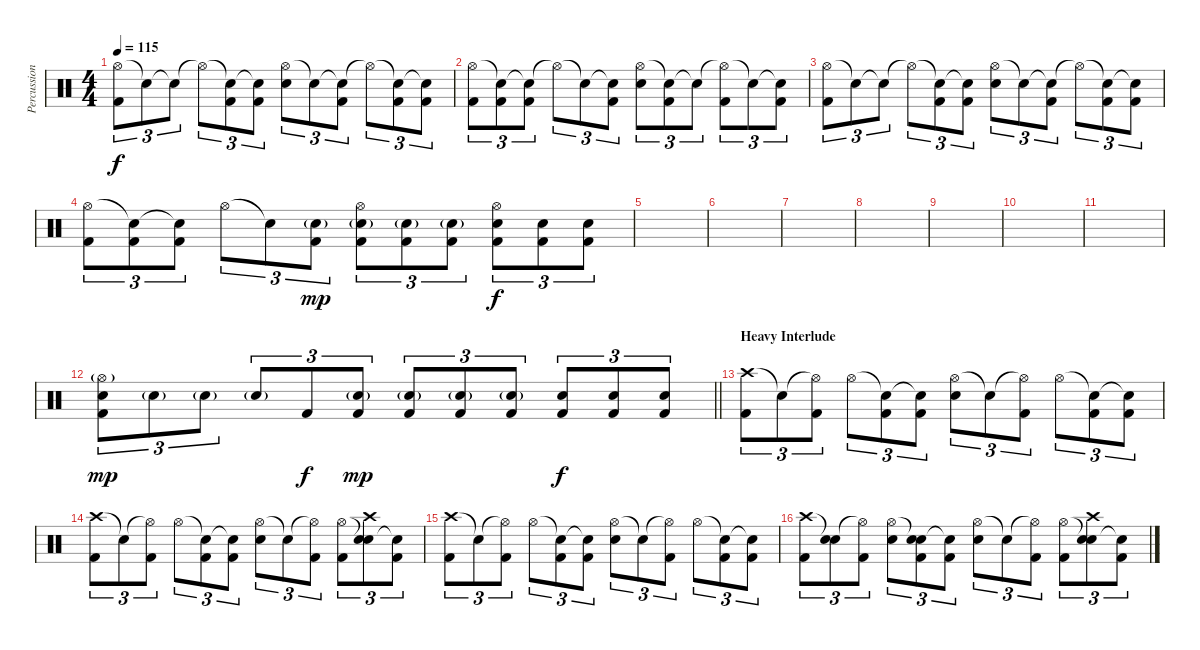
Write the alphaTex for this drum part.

\track ("Percussion" "Percussion") {instrument percussion}
\staff {score}
\articulation defaults
\ts (4 4)
\tempo 115
\clef neutral
\ks c
("Hi-Hat (open)" "Kick (hit) 2").8{tu (3 2) dy f} "Snare (hit)"{t}.8{tu (3 2)} "Snare (hit)"{t}.8{tu (3 2)} "Hi-Hat (open)"{t}.8{tu (3 2)} ("Snare (hit)"{t} "Kick (hit) 2").8{tu (3 2)} ("Snare (hit)"{t} "Kick (hit) 2").8{tu (3 2)} ("Hi-Hat (open)" "Electric Snare (hit)").8{tu (3 2)} "Snare (hit)"{t}.8{tu (3 2)} ("Snare (hit)"{t} "Kick (hit) 2").8{tu (3 2)} "Hi-Hat (open)"{t}.8{tu (3 2)} ("Snare (hit)"{t} "Kick (hit) 2").8{tu (3 2)} ("Snare (hit)"{t} "Kick (hit) 2").8{tu (3 2)} |
("Hi-Hat (open)" "Kick (hit) 2").8{tu (3 2)} ("Snare (hit)"{t} "Kick (hit) 2").8{tu (3 2)} ("Snare (hit)"{t} "Kick (hit) 2").8{tu (3 2)} "Hi-Hat (open)"{t}.8{tu (3 2)} "Snare (hit)"{t}.8{tu (3 2)} ("Snare (hit)"{t} "Kick (hit) 2").8{tu (3 2)} ("Hi-Hat (open)" "Electric Snare (hit)").8{tu (3 2)} ("Snare (hit)"{t} "Kick (hit) 2").8{tu (3 2)} "Snare (hit)"{t}.8{tu (3 2)} ("Hi-Hat (open)"{t} "Kick (hit) 2").8{tu (3 2)} "Snare (hit)"{t}.8{tu (3 2)} ("Snare (hit)"{t} "Kick (hit) 2").8{tu (3 2)} |
("Hi-Hat (open)" "Kick (hit) 2").8{tu (3 2)} "Snare (hit)"{t}.8{tu (3 2)} "Snare (hit)"{t}.8{tu (3 2)} "Hi-Hat (open)"{t}.8{tu (3 2)} ("Snare (hit)"{t} "Kick (hit) 2").8{tu (3 2)} ("Snare (hit)"{t} "Kick (hit) 2").8{tu (3 2)} ("Hi-Hat (open)" "Electric Snare (hit)").8{tu (3 2)} "Snare (hit)"{t}.8{tu (3 2)} ("Snare (hit)"{t} "Kick (hit) 2").8{tu (3 2)} "Hi-Hat (open)"{t}.8{tu (3 2)} ("Snare (hit)"{t} "Kick (hit) 2").8{tu (3 2)} ("Snare (hit)"{t} "Kick (hit) 2").8{tu (3 2)} |
("Hi-Hat (open)" "Kick (hit) 2").8{tu (3 2)} ("Snare (hit)"{t} "Kick (hit) 2").8{tu (3 2)} ("Snare (hit)"{t} "Kick (hit) 2").8{tu (3 2)} "Hi-Hat (open)".8{tu (3 2)} "Snare (hit)"{t}.8{tu (3 2)} ("Electric Snare (hit)"{g} "Kick (hit) 2").8{tu (3 2) dy mp} ("Hi-Hat (open)" "Electric Snare (hit)"{g} "Kick (hit) 2").8{tu (3 2)} ("Electric Snare (hit)"{g} "Kick (hit) 2").8{tu (3 2)} ("Electric Snare (hit)"{g} "Kick (hit) 2").8{tu (3 2)} ("Hi-Hat (open)" "Electric Snare (hit)" "Kick (hit) 2").8{tu (3 2) dy f} ("Electric Snare (hit)" "Kick (hit) 2").8{tu (3 2)} ("Electric Snare (hit)" "Kick (hit) 2").8{tu (3 2)} |
|
|
|
|
|
|
|
\barLineRight lightlight
("Hi-Hat (open)"{g} "Electric Snare (hit)" "Kick (hit) 2").8{tu (3 2) dy mp} "Electric Snare (hit)"{g}.8{tu (3 2)} "Electric Snare (hit)"{g}.8{tu (3 2)} "Electric Snare (hit)"{g}.8{tu (3 2)} "Kick (hit) 2".8{tu (3 2) dy f} ("Electric Snare (hit)"{g} "Kick (hit) 2").8{tu (3 2) dy mp} ("Electric Snare (hit)"{g} "Kick (hit) 2").8{tu (3 2)} ("Electric Snare (hit)"{g} "Kick (hit) 2").8{tu (3 2)} ("Electric Snare (hit)"{g} "Kick (hit) 2").8{tu (3 2)} ("Electric Snare (hit)" "Kick (hit) 2").8{tu (3 2) dy f} ("Electric Snare (hit)" "Kick (hit) 2").8{tu (3 2)} ("Electric Snare (hit)" "Kick (hit) 2").8{tu (3 2)} |
\section ("" "Heavy Interlude")
("Crash high (hit)" "Kick (hit) 2").8{tu (3 2)} "Snare (hit)"{t}.8{tu (3 2)} ("Hi-Hat (open)"{t} "Kick (hit) 2").8{tu (3 2)} "Hi-Hat (open)".8{tu (3 2)} ("Snare (hit)"{t} "Kick (hit) 2").8{tu (3 2)} ("Snare (hit)"{t} "Kick (hit) 2").8{tu (3 2)} ("Hi-Hat (open)" "Electric Snare (hit)").8{tu (3 2)} "Snare (hit)"{t}.8{tu (3 2)} ("Hi-Hat (open)"{t} "Kick (hit) 2").8{tu (3 2)} "Hi-Hat (open)".8{tu (3 2)} ("Snare (hit)"{t} "Kick (hit) 2").8{tu (3 2)} ("Snare (hit)"{t} "Kick (hit) 2").8{tu (3 2)} |
("Crash high (hit)" "Kick (hit) 2").8{tu (3 2)} "Snare (hit)"{t}.8{tu (3 2)} ("Hi-Hat (open)"{t} "Kick (hit) 2").8{tu (3 2)} "Hi-Hat (open)".8{tu (3 2)} ("Snare (hit)"{t} "Kick (hit) 2").8{tu (3 2)} ("Snare (hit)"{t} "Kick (hit) 2").8{tu (3 2)} ("Hi-Hat (open)" "Electric Snare (hit)").8{tu (3 2)} "Snare (hit)"{t}.8{tu (3 2)} ("Hi-Hat (open)"{t} "Kick (hit) 2").8{tu (3 2)} ("Hi-Hat (open)" "Kick (hit) 2").8{tu (3 2)} ("Snare (hit)"{t} "Crash high (hit)" "Electric Snare (hit)").8{tu (3 2)} ("Snare (hit)"{t} "Kick (hit) 2").8{tu (3 2)} |
("Crash high (hit)" "Kick (hit) 2").8{tu (3 2)} "Snare (hit)"{t}.8{tu (3 2)} ("Hi-Hat (open)"{t} "Kick (hit) 2").8{tu (3 2)} "Hi-Hat (open)".8{tu (3 2)} ("Snare (hit)"{t} "Kick (hit) 2").8{tu (3 2)} ("Snare (hit)"{t} "Kick (hit) 2").8{tu (3 2)} ("Hi-Hat (open)" "Electric Snare (hit)").8{tu (3 2)} "Snare (hit)"{t}.8{tu (3 2)} ("Hi-Hat (open)"{t} "Kick (hit) 2").8{tu (3 2)} "Hi-Hat (open)".8{tu (3 2)} ("Snare (hit)"{t} "Kick (hit) 2").8{tu (3 2)} ("Snare (hit)"{t} "Kick (hit) 2").8{tu (3 2)} |
("Crash high (hit)" "Kick (hit) 2").8{tu (3 2)} ("Snare (hit)"{t} "Electric Snare (hit)").8{tu (3 2)} ("Hi-Hat (open)"{t} "Kick (hit) 2").8{tu (3 2)} ("Hi-Hat (open)" "Electric Snare (hit)").8{tu (3 2)} ("Snare (hit)"{t} "Electric Snare (hit)" "Kick (hit) 2").8{tu (3 2)} ("Snare (hit)"{t} "Kick (hit) 2").8{tu (3 2)} ("Hi-Hat (open)" "Electric Snare (hit)").8{tu (3 2)} "Snare (hit)"{t}.8{tu (3 2)} ("Hi-Hat (open)"{t} "Kick (hit) 2").8{tu (3 2)} ("Hi-Hat (open)" "Kick (hit) 2").8{tu (3 2)} ("Snare (hit)"{t} "Crash high (hit)" "Electric Snare (hit)").8{tu (3 2)} ("Snare (hit)"{t} "Kick (hit) 2").8{tu (3 2)}
